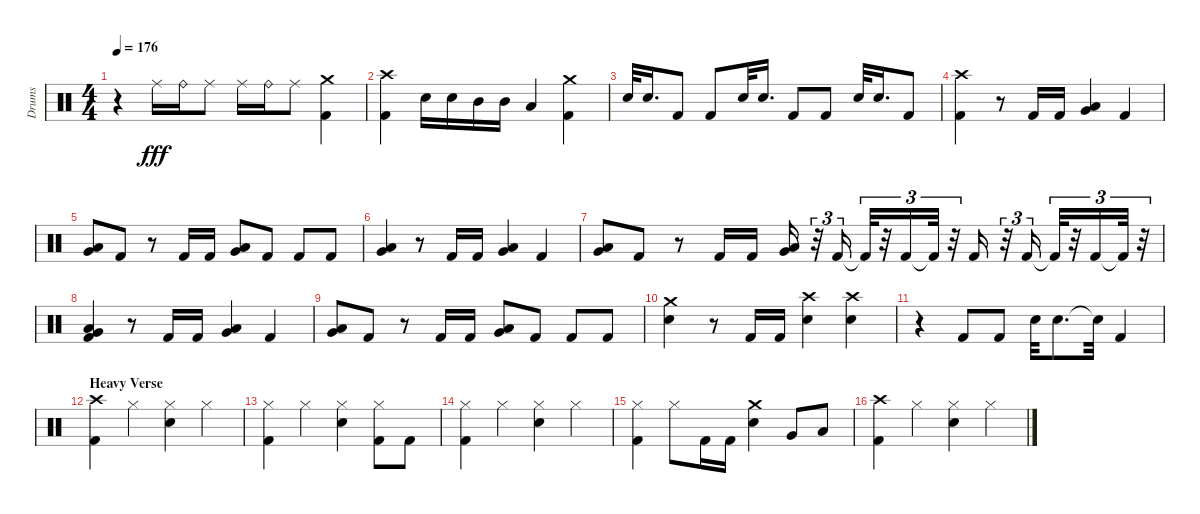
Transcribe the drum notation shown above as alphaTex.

\track ("Drums" "Drums") {instrument percussion}
\staff {score}
\articulation defaults
\ts (4 4)
\tempo 176
\clef neutral
\ks aminor
r.4{dy fff} "Ride (middle)".16 "Ride (bell)".16 "Ride (middle)".8 "Ride (middle)".16 "Ride (bell)".16 "Ride (middle)".8 ("Kick (hit) 2" "Crash medium (hit)").4 |
("Kick (hit) 2" "Crash high (hit)").4 "Snare (hit) 2".16 "Snare (hit) 2".16 "Mid Tom (hit)".16 "Mid Tom (hit)".16 "Low Tom (hit)".4 ("Kick (hit) 2" "Crash medium (hit)").4 |
"Snare (hit) 2".32 "Snare (hit) 2".16{d} "Kick (hit) 2".8 "Kick (hit) 2".8 "Snare (hit) 2".32 "Snare (hit) 2".16{d} "Kick (hit) 2".8 "Kick (hit) 2".8 "Snare (hit) 2".32 "Snare (hit) 2".16{d} "Kick (hit) 2".8 |
("Kick (hit) 2" "Crash high (hit)").4 r.8 "Kick (hit) 2".16 "Kick (hit) 2".16 ("Low Floor Tom (hit)" "Very Low Tom (hit)").4 "Kick (hit) 2".4 |
("Low Floor Tom (hit)" "Very Low Tom (hit)").8 "Kick (hit) 2".8 r.8 "Kick (hit) 2".16 "Kick (hit) 2".16 ("Low Floor Tom (hit)" "Very Low Tom (hit)").8 "Kick (hit) 2".8 "Kick (hit) 2".8 "Kick (hit) 2".8 |
("Low Floor Tom (hit)" "Very Low Tom (hit)").4 r.8 "Kick (hit) 2".16 "Kick (hit) 2".16 ("Low Floor Tom (hit)" "Very Low Tom (hit)").4 "Kick (hit) 2".4 |
("Low Floor Tom (hit)" "Very Low Tom (hit)").8 "Kick (hit) 2".8 r.8 "Kick (hit) 2".16 "Kick (hit) 2".16 ("Low Floor Tom (hit)" "Very Low Tom (hit)").16 r.32{tu (3 2)} "Kick (hit) 2".16{tu (3 2)} "Kick (hit) 2"{t}.32{tu (3 2)} r.32{tu (3 2)} "Kick (hit) 2".16{tu (3 2)} "Kick (hit) 2"{t}.32{tu (3 2)} r.32{tu (3 2)} "Kick (hit) 2".16 r.32{tu (3 2)} "Kick (hit) 2".16{tu (3 2)} "Kick (hit) 2"{t}.32{tu (3 2)} r.32{tu (3 2)} "Kick (hit) 2".16{tu (3 2)} "Kick (hit) 2"{t}.32{tu (3 2)} r.32{tu (3 2)} |
("Low Floor Tom (hit)" "Kick (hit) 2" "Very Low Tom (hit)").4 r.8 "Kick (hit) 2".16 "Kick (hit) 2".16 ("Low Floor Tom (hit)" "Very Low Tom (hit)").4 "Kick (hit) 2".4 |
("Low Floor Tom (hit)" "Very Low Tom (hit)").8 "Kick (hit) 2".8 r.8 "Kick (hit) 2".16 "Kick (hit) 2".16 ("Low Floor Tom (hit)" "Very Low Tom (hit)").8 "Kick (hit) 2".8 "Kick (hit) 2".8 "Kick (hit) 2".8 |
("Snare (hit) 2" "Crash medium (hit)").4 r.8 "Kick (hit) 2".16 "Kick (hit) 2".16 ("Snare (hit) 2" "Crash high (hit)").4 ("Snare (hit) 2" "Crash high (hit)").4 |
r.4 "Kick (hit) 2".8 "Kick (hit) 2".8 "Snare (hit) 2".32 "Snare (hit) 2".8{d} "Snare (hit) 2"{t}.32 "Kick (hit) 2".4 |
\section ("" "Heavy Verse")
("Kick (hit) 2" "Crash high (hit)").4 "Hi-Hat (closed)".4 ("Snare (hit) 2" "Hi-Hat (closed)").4 "Hi-Hat (closed)".4 |
("Kick (hit) 2" "Hi-Hat (closed)").4 "Hi-Hat (closed)".4 ("Snare (hit) 2" "Hi-Hat (closed)").4 ("Kick (hit) 2" "Hi-Hat (closed)").8 "Kick (hit) 2".8 |
("Kick (hit) 2" "Hi-Hat (closed)").4 "Hi-Hat (closed)".4 ("Snare (hit) 2" "Hi-Hat (closed)").4 "Hi-Hat (closed)".4 |
("Kick (hit) 2" "Hi-Hat (closed)").4 "Hi-Hat (closed)".8 "Kick (hit) 2".16 "Kick (hit) 2".16 ("Snare (hit) 2" "Crash medium (hit)").4 "Very Low Tom (hit)".8 "Low Floor Tom (hit)".8 |
("Kick (hit) 2" "Crash high (hit)").4 "Hi-Hat (closed)".4 ("Snare (hit) 2" "Hi-Hat (closed)").4 "Hi-Hat (closed)".4
